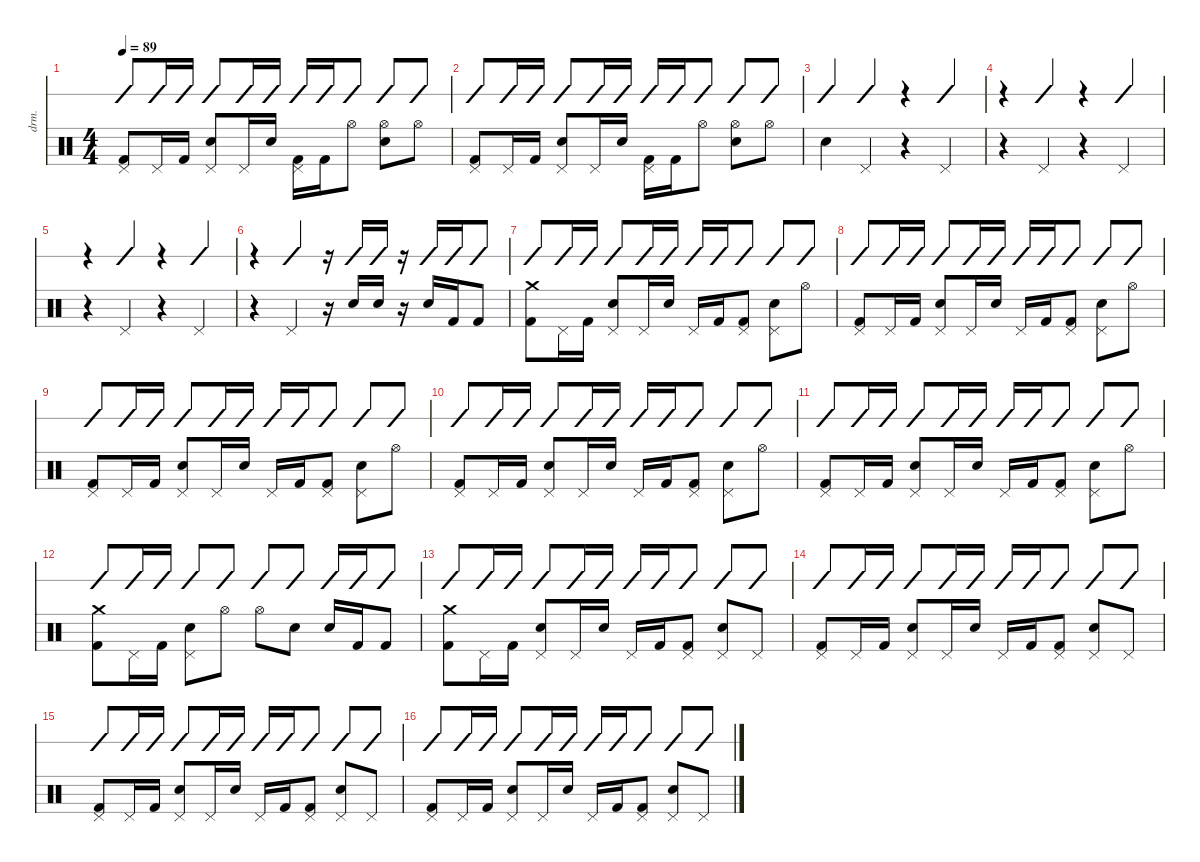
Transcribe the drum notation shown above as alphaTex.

\defaultSystemsLayout 4
\hideDynamics
\bracketExtendMode nobrackets
\otherSystemsTrackNameOrientation horizontal
\track ("Drumkit" "drm.") {instrument percussion}
\staff {score slash}
\articulation defaults
\ts (4 4)
\tempo 89
\clef neutral
\ks c
("Pedal Hi-Hat (hit)" "Kick (hit) 2").8{dy f beam Up} "Pedal Hi-Hat (hit)".16{beam Up} "Kick (hit) 2".16{beam Up} ("Pedal Hi-Hat (hit)" "Snare (hit) 2").8{beam Up} "Pedal Hi-Hat (hit)".16{beam Up} "Snare (hit) 2".16{beam Up} ("Pedal Hi-Hat (hit)" "Kick (hit) 2").16{beam Down} "Kick (hit) 2".16{beam Down} "Hi-Hat (open)".8{beam Down} ("Hi-Hat (open)" "Snare (hit) 2").8{beam Down} "Hi-Hat (open)".8{beam Down} |
("Pedal Hi-Hat (hit)" "Kick (hit) 2").8{beam Up} "Pedal Hi-Hat (hit)".16{beam Up} "Kick (hit) 2".16{beam Up} ("Pedal Hi-Hat (hit)" "Snare (hit) 2").8{beam Up} "Pedal Hi-Hat (hit)".16{beam Up} "Snare (hit) 2".16{beam Up} ("Pedal Hi-Hat (hit)" "Kick (hit) 2").16{beam Down} "Kick (hit) 2".16{beam Down} "Hi-Hat (open)".8{beam Down} ("Hi-Hat (open)" "Snare (hit) 2").8{beam Down} "Hi-Hat (open)".8{beam Down} |
"Snare (hit) 2".4{beam Down} "Pedal Hi-Hat (hit)".4{beam Up} r.4{beam Up} "Pedal Hi-Hat (hit)".4{beam Up} |
r.4{beam Down} "Pedal Hi-Hat (hit)".4{beam Up} r.4{beam Up} "Pedal Hi-Hat (hit)".4{beam Up} |
r.4{beam Down} "Pedal Hi-Hat (hit)".4{beam Up} r.4{beam Up} "Pedal Hi-Hat (hit)".4{beam Up} |
r.4{beam Down} "Pedal Hi-Hat (hit)".4{beam Up} r.16{beam Up} "Snare (hit) 2".16{beam Down} "Snare (hit) 2".16{beam Down} r.16{beam Down} "Snare (hit) 2".16{beam Up} "Kick (hit) 2".16{beam Up} "Kick (hit) 2".8{beam Up} |
("Crash medium (hit)" "Kick (hit) 2").8{beam Down} "Pedal Hi-Hat (hit)".16{beam Down} "Kick (hit) 2".16{beam Down} ("Pedal Hi-Hat (hit)" "Snare (hit) 2").8{beam Up} "Pedal Hi-Hat (hit)".16{beam Up} "Snare (hit) 2".16{beam Up} "Pedal Hi-Hat (hit)".16{beam Up} "Kick (hit) 2".16{beam Up} ("Pedal Hi-Hat (hit)" "Kick (hit) 2").8{beam Up} ("Pedal Hi-Hat (hit)" "Snare (hit) 2").8{beam Down} "Hi-Hat (open)".8{beam Down} |
("Pedal Hi-Hat (hit)" "Kick (hit) 2").8{beam Up} "Pedal Hi-Hat (hit)".16{beam Up} "Kick (hit) 2".16{beam Up} ("Pedal Hi-Hat (hit)" "Snare (hit) 2").8{beam Up} "Pedal Hi-Hat (hit)".16{beam Up} "Snare (hit) 2".16{beam Up} "Pedal Hi-Hat (hit)".16{beam Up} "Kick (hit) 2".16{beam Up} ("Pedal Hi-Hat (hit)" "Kick (hit) 2").8{beam Up} ("Pedal Hi-Hat (hit)" "Snare (hit) 2").8{beam Down} "Hi-Hat (open)".8{beam Down} |
("Pedal Hi-Hat (hit)" "Kick (hit) 2").8{beam Up} "Pedal Hi-Hat (hit)".16{beam Up} "Kick (hit) 2".16{beam Up} ("Pedal Hi-Hat (hit)" "Snare (hit) 2").8{beam Up} "Pedal Hi-Hat (hit)".16{beam Up} "Snare (hit) 2".16{beam Up} "Pedal Hi-Hat (hit)".16{beam Up} "Kick (hit) 2".16{beam Up} ("Pedal Hi-Hat (hit)" "Kick (hit) 2").8{beam Up} ("Pedal Hi-Hat (hit)" "Snare (hit) 2").8{beam Down} "Hi-Hat (open)".8{beam Down} |
("Pedal Hi-Hat (hit)" "Kick (hit) 2").8{beam Up} "Pedal Hi-Hat (hit)".16{beam Up} "Kick (hit) 2".16{beam Up} ("Pedal Hi-Hat (hit)" "Snare (hit) 2").8{beam Up} "Pedal Hi-Hat (hit)".16{beam Up} "Snare (hit) 2".16{beam Up} "Pedal Hi-Hat (hit)".16{beam Up} "Kick (hit) 2".16{beam Up} ("Pedal Hi-Hat (hit)" "Kick (hit) 2").8{beam Up} ("Pedal Hi-Hat (hit)" "Snare (hit) 2").8{beam Down} "Hi-Hat (open)".8{beam Down} |
("Pedal Hi-Hat (hit)" "Kick (hit) 2").8{beam Up} "Pedal Hi-Hat (hit)".16{beam Up} "Kick (hit) 2".16{beam Up} ("Pedal Hi-Hat (hit)" "Snare (hit) 2").8{beam Up} "Pedal Hi-Hat (hit)".16{beam Up} "Snare (hit) 2".16{beam Up} "Pedal Hi-Hat (hit)".16{beam Up} "Kick (hit) 2".16{beam Up} ("Pedal Hi-Hat (hit)" "Kick (hit) 2").8{beam Up} ("Pedal Hi-Hat (hit)" "Snare (hit) 2").8{beam Down} "Hi-Hat (open)".8{beam Down} |
("Crash medium (hit)" "Kick (hit) 2").8{beam Down} "Pedal Hi-Hat (hit)".16{beam Down} "Kick (hit) 2".16{beam Down} ("Pedal Hi-Hat (hit)" "Snare (hit) 2").8{beam Down} "Hi-Hat (open)".8{beam Down} "Hi-Hat (open)".8{beam Down} "Snare (hit) 2".8{beam Down} "Snare (hit) 2".16{beam Up} "Kick (hit) 2".16{beam Up} "Kick (hit) 2".8{beam Up} |
("Crash medium (hit)" "Kick (hit) 2").8{beam Down} "Pedal Hi-Hat (hit)".16{beam Down} "Kick (hit) 2".16{beam Down} ("Pedal Hi-Hat (hit)" "Snare (hit) 2").8{beam Up} "Pedal Hi-Hat (hit)".16{beam Up} "Snare (hit) 2".16{beam Up} "Pedal Hi-Hat (hit)".16{beam Up} "Kick (hit) 2".16{beam Up} ("Pedal Hi-Hat (hit)" "Kick (hit) 2").8{beam Up} ("Pedal Hi-Hat (hit)" "Snare (hit) 2").8{beam Up} "Pedal Hi-Hat (hit)".8{beam Up} |
("Pedal Hi-Hat (hit)" "Kick (hit) 2").8{beam Up} "Pedal Hi-Hat (hit)".16{beam Up} "Kick (hit) 2".16{beam Up} ("Pedal Hi-Hat (hit)" "Snare (hit) 2").8{beam Up} "Pedal Hi-Hat (hit)".16{beam Up} "Snare (hit) 2".16{beam Up} "Pedal Hi-Hat (hit)".16{beam Up} "Kick (hit) 2".16{beam Up} ("Pedal Hi-Hat (hit)" "Kick (hit) 2").8{beam Up} ("Pedal Hi-Hat (hit)" "Snare (hit) 2").8{beam Up} "Pedal Hi-Hat (hit)".8{beam Up} |
("Pedal Hi-Hat (hit)" "Kick (hit) 2").8{beam Up} "Pedal Hi-Hat (hit)".16{beam Up} "Kick (hit) 2".16{beam Up} ("Pedal Hi-Hat (hit)" "Snare (hit) 2").8{beam Up} "Pedal Hi-Hat (hit)".16{beam Up} "Snare (hit) 2".16{beam Up} "Pedal Hi-Hat (hit)".16{beam Up} "Kick (hit) 2".16{beam Up} ("Pedal Hi-Hat (hit)" "Kick (hit) 2").8{beam Up} ("Pedal Hi-Hat (hit)" "Snare (hit) 2").8{beam Up} "Pedal Hi-Hat (hit)".8{beam Up} |
("Pedal Hi-Hat (hit)" "Kick (hit) 2").8{beam Up} "Pedal Hi-Hat (hit)".16{beam Up} "Kick (hit) 2".16{beam Up} ("Pedal Hi-Hat (hit)" "Snare (hit) 2").8{beam Up} "Pedal Hi-Hat (hit)".16{beam Up} "Snare (hit) 2".16{beam Up} "Pedal Hi-Hat (hit)".16{beam Up} "Kick (hit) 2".16{beam Up} ("Pedal Hi-Hat (hit)" "Kick (hit) 2").8{beam Up} ("Pedal Hi-Hat (hit)" "Snare (hit) 2").8{beam Up} "Pedal Hi-Hat (hit)".8{beam Up}
